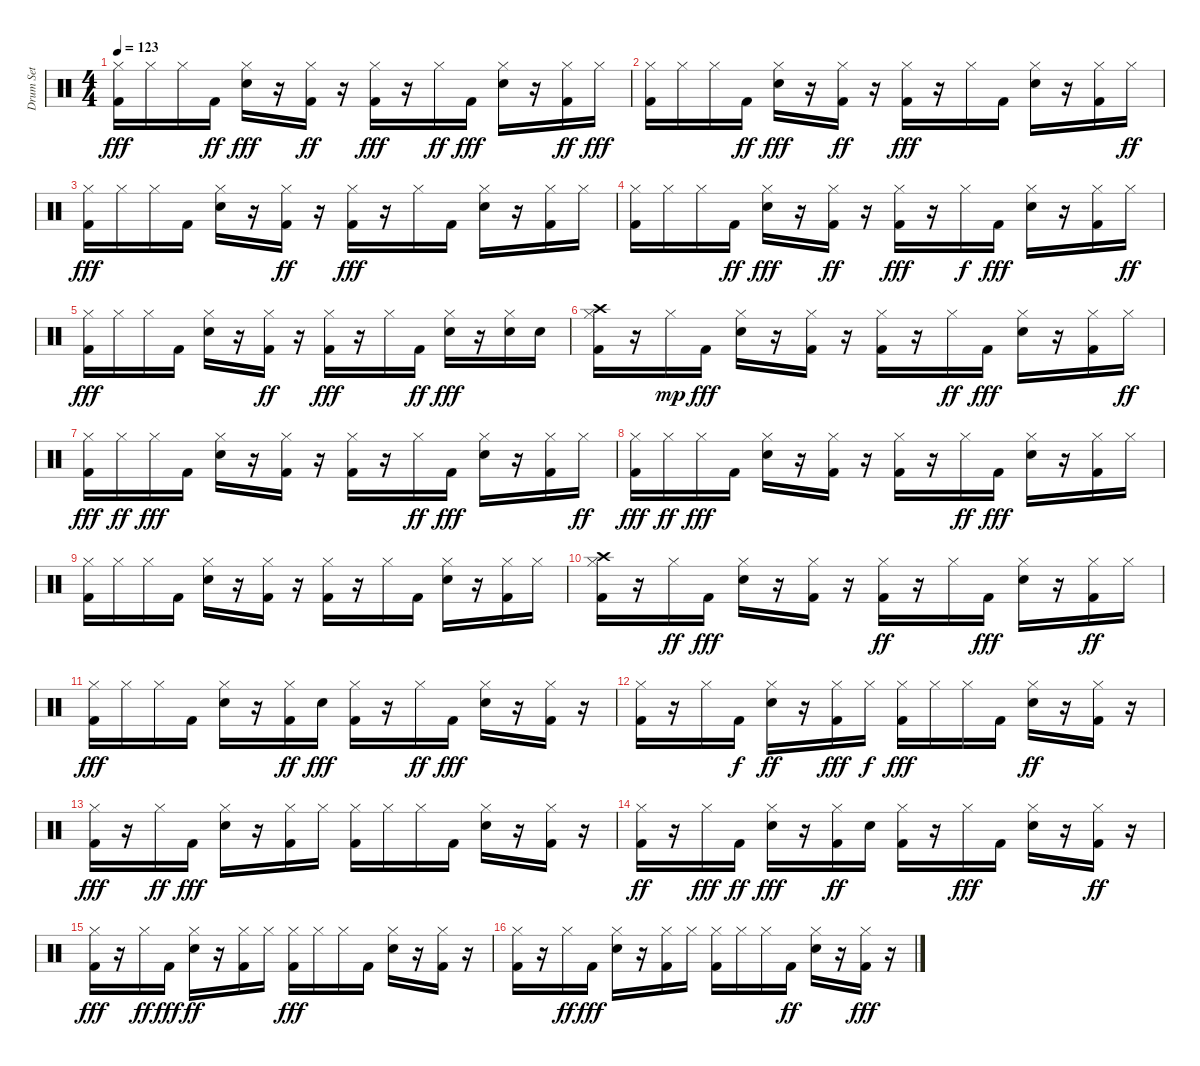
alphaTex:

\track ("Drum Set" "Drum Set") {instrument percussion}
\staff {score}
\articulation defaults
\ts (4 4)
\tempo 123
\clef neutral
\ks c
("Hi-Hat (closed)" "Kick (hit) 2").16{dy fff} "Hi-Hat (closed)".16 "Hi-Hat (closed)".16 "Kick (hit) 2".16{dy ff} ("Snare (hit) 2" "Hi-Hat (closed)").16{dy fff} r.16 ("Hi-Hat (closed)" "Kick (hit) 2").16{dy ff} r.16 ("Kick (hit) 2" "Hi-Hat (closed)").16{dy fff} r.16 "Hi-Hat (closed)".16{dy ff} "Kick (hit) 2".16{dy fff} ("Snare (hit) 2" "Hi-Hat (closed)").16 r.16 ("Hi-Hat (closed)" "Kick (hit) 2").16{dy ff} "Hi-Hat (closed)".16{dy fff} |
("Hi-Hat (closed)" "Kick (hit) 2").16 "Hi-Hat (closed)".16 "Hi-Hat (closed)".16 "Kick (hit) 2".16{dy ff} ("Hi-Hat (closed)" "Snare (hit) 2").16{dy fff} r.16 ("Kick (hit) 2" "Hi-Hat (closed)").16{dy ff} r.16 ("Kick (hit) 2" "Hi-Hat (closed)").16{dy fff} r.16 "Hi-Hat (closed)".16 "Kick (hit) 2".16 ("Snare (hit) 2" "Hi-Hat (closed)").16 r.16 ("Kick (hit) 2" "Hi-Hat (closed)").16 "Hi-Hat (closed)".16{dy ff} |
("Kick (hit) 2" "Hi-Hat (closed)").16{dy fff} "Hi-Hat (closed)".16 "Hi-Hat (closed)".16 "Kick (hit) 2".16 ("Snare (hit) 2" "Hi-Hat (closed)").16 r.16 ("Hi-Hat (closed)" "Kick (hit) 2").16{dy ff} r.16 ("Kick (hit) 2" "Hi-Hat (closed)").16{dy fff} r.16 "Hi-Hat (closed)".16 "Kick (hit) 2".16 ("Snare (hit) 2" "Hi-Hat (closed)").16 r.16 ("Hi-Hat (closed)" "Kick (hit) 2").16 "Hi-Hat (closed)".16 |
("Hi-Hat (closed)" "Kick (hit) 2").16 "Hi-Hat (closed)".16 "Hi-Hat (closed)".16 "Kick (hit) 2".16{dy ff} ("Snare (hit) 2" "Hi-Hat (closed)").16{dy fff} r.16 ("Hi-Hat (closed)" "Kick (hit) 2").16{dy ff} r.16 ("Kick (hit) 2" "Hi-Hat (closed)").16{dy fff} r.16 "Hi-Hat (closed)".16{dy f} "Kick (hit) 2".16{dy fff} ("Snare (hit) 2" "Hi-Hat (closed)").16 r.16 ("Kick (hit) 2" "Hi-Hat (closed)").16 "Hi-Hat (closed)".16{dy ff} |
("Hi-Hat (closed)" "Kick (hit) 2").16{dy fff} "Hi-Hat (closed)".16 "Hi-Hat (closed)".16 "Kick (hit) 2".16 ("Snare (hit) 2" "Hi-Hat (closed)").16 r.16 ("Hi-Hat (closed)" "Kick (hit) 2").16{dy ff} r.16 ("Hi-Hat (closed)" "Kick (hit) 2").16{dy fff} r.16 "Hi-Hat (closed)".16 "Kick (hit) 2".16{dy ff} ("Hi-Hat (closed)" "Snare (hit) 2").16{dy fff} r.16 ("Snare (hit) 2" "Hi-Hat (closed)").16 "Snare (hit) 2".16 |
("Kick (hit) 2" "Crash high (hit)" "Hi-Hat (closed)").16 r.16 "Hi-Hat (closed)".16{dy mp} "Kick (hit) 2".16{dy fff} ("Hi-Hat (closed)" "Snare (hit) 2").16 r.16 ("Hi-Hat (closed)" "Kick (hit) 2").16 r.16 ("Kick (hit) 2" "Hi-Hat (closed)").16 r.16 "Hi-Hat (closed)".16{dy ff} "Kick (hit) 2".16{dy fff} ("Hi-Hat (closed)" "Snare (hit) 2").16 r.16 ("Hi-Hat (closed)" "Kick (hit) 2").16 "Hi-Hat (closed)".16{dy ff} |
("Kick (hit) 2" "Hi-Hat (closed)").16{dy fff} "Hi-Hat (closed)".16{dy ff} "Hi-Hat (closed)".16{dy fff} "Kick (hit) 2".16 ("Snare (hit) 2" "Hi-Hat (closed)").16 r.16 ("Hi-Hat (closed)" "Kick (hit) 2").16 r.16 ("Hi-Hat (closed)" "Kick (hit) 2").16 r.16 "Hi-Hat (closed)".16{dy ff} "Kick (hit) 2".16{dy fff} ("Hi-Hat (closed)" "Snare (hit) 2").16 r.16 ("Kick (hit) 2" "Hi-Hat (closed)").16 "Hi-Hat (closed)".16{dy ff} |
("Hi-Hat (closed)" "Kick (hit) 2").16{dy fff} "Hi-Hat (closed)".16{dy ff} "Hi-Hat (closed)".16{dy fff} "Kick (hit) 2".16 ("Snare (hit) 2" "Hi-Hat (closed)").16 r.16 ("Kick (hit) 2" "Hi-Hat (closed)").16 r.16 ("Hi-Hat (closed)" "Kick (hit) 2").16 r.16 "Hi-Hat (closed)".16{dy ff} "Kick (hit) 2".16{dy fff} ("Hi-Hat (closed)" "Snare (hit) 2").16 r.16 ("Hi-Hat (closed)" "Kick (hit) 2").16 "Hi-Hat (closed)".16 |
("Hi-Hat (closed)" "Kick (hit) 2").16 "Hi-Hat (closed)".16 "Hi-Hat (closed)".16 "Kick (hit) 2".16 ("Hi-Hat (closed)" "Snare (hit) 2").16 r.16 ("Hi-Hat (closed)" "Kick (hit) 2").16 r.16 ("Hi-Hat (closed)" "Kick (hit) 2").16 r.16 "Hi-Hat (closed)".16 "Kick (hit) 2".16 ("Hi-Hat (closed)" "Snare (hit) 2").16 r.16 ("Hi-Hat (closed)" "Kick (hit) 2").16 "Hi-Hat (closed)".16 |
("Crash high (hit)" "Kick (hit) 2" "Hi-Hat (closed)").16 r.16 "Hi-Hat (closed)".16{dy ff} "Kick (hit) 2".16{dy fff} ("Snare (hit) 2" "Hi-Hat (closed)").16 r.16 ("Kick (hit) 2" "Hi-Hat (closed)").16 r.16 ("Hi-Hat (closed)" "Kick (hit) 2").16{dy ff} r.16 "Hi-Hat (closed)".16 "Kick (hit) 2".16{dy fff} ("Hi-Hat (closed)" "Snare (hit) 2").16 r.16 ("Hi-Hat (closed)" "Kick (hit) 2").16{dy ff} "Hi-Hat (closed)".16 |
("Hi-Hat (closed)" "Kick (hit) 2").16{dy fff} "Hi-Hat (closed)".16 "Hi-Hat (closed)".16 "Kick (hit) 2".16 ("Snare (hit) 2" "Hi-Hat (closed)").16 r.16 ("Hi-Hat (closed)" "Kick (hit) 2").16{dy ff} "Snare (hit) 2".16{dy fff} ("Kick (hit) 2" "Hi-Hat (closed)").16 r.16 "Hi-Hat (closed)".16{dy ff} "Kick (hit) 2".16{dy fff} ("Snare (hit) 2" "Hi-Hat (closed)").16 r.16 ("Kick (hit) 2" "Hi-Hat (closed)").16 r.16 |
("Kick (hit) 2" "Hi-Hat (closed)").16 r.16 "Hi-Hat (closed)".16 "Kick (hit) 2".16{dy f} ("Snare (hit) 2" "Hi-Hat (closed)").16{dy ff} r.16 ("Kick (hit) 2" "Hi-Hat (closed)").16{dy fff} "Hi-Hat (closed)".16{dy f} ("Hi-Hat (closed)" "Kick (hit) 2").16{dy fff} "Hi-Hat (closed)".16 "Hi-Hat (closed)".16 "Kick (hit) 2".16 ("Hi-Hat (closed)" "Snare (hit) 2").16{dy ff} r.16 ("Kick (hit) 2" "Hi-Hat (closed)").16 r.16 |
("Kick (hit) 2" "Hi-Hat (closed)").16{dy fff} r.16 "Hi-Hat (closed)".16{dy ff} "Kick (hit) 2".16{dy fff} ("Snare (hit) 2" "Hi-Hat (closed)").16 r.16 ("Kick (hit) 2" "Hi-Hat (closed)").16 "Hi-Hat (closed)".16 ("Hi-Hat (closed)" "Kick (hit) 2").16 "Hi-Hat (closed)".16 "Hi-Hat (closed)".16 "Kick (hit) 2".16 ("Snare (hit) 2" "Hi-Hat (closed)").16 r.16 ("Kick (hit) 2" "Hi-Hat (closed)").16 r.16 |
("Kick (hit) 2" "Hi-Hat (closed)").16{dy ff} r.16 "Hi-Hat (closed)".16{dy fff} "Kick (hit) 2".16{dy ff} ("Snare (hit) 2" "Hi-Hat (closed)").16{dy fff} r.16 ("Kick (hit) 2" "Hi-Hat (closed)").16{dy ff} "Snare (hit) 2".16 ("Hi-Hat (closed)" "Kick (hit) 2").16 r.16 "Hi-Hat (closed)".16{dy fff} "Kick (hit) 2".16 ("Hi-Hat (closed)" "Snare (hit) 2").16 r.16 ("Kick (hit) 2" "Hi-Hat (closed)").16{dy ff} r.16 |
("Kick (hit) 2" "Hi-Hat (closed)").16{dy fff} r.16 "Hi-Hat (closed)".16{dy ff} "Kick (hit) 2".16{dy fff} ("Snare (hit) 2" "Hi-Hat (closed)").16{dy ff} r.16 ("Hi-Hat (closed)" "Kick (hit) 2").16 "Hi-Hat (closed)".16 ("Hi-Hat (closed)" "Kick (hit) 2").16{dy fff} "Hi-Hat (closed)".16 "Hi-Hat (closed)".16 "Kick (hit) 2".16 ("Snare (hit) 2" "Hi-Hat (closed)").16 r.16 ("Kick (hit) 2" "Hi-Hat (closed)").16 r.16 |
("Kick (hit) 2" "Hi-Hat (closed)").16 r.16 "Hi-Hat (closed)".16{dy ff} "Kick (hit) 2".16{dy fff} ("Hi-Hat (closed)" "Snare (hit) 2").16 r.16 ("Kick (hit) 2" "Hi-Hat (closed)").16 "Hi-Hat (closed)".16 ("Hi-Hat (closed)" "Kick (hit) 2").16 "Hi-Hat (closed)".16 "Hi-Hat (closed)".16 "Kick (hit) 2".16{dy ff} ("Hi-Hat (closed)" "Snare (hit) 2").16 r.16 ("Kick (hit) 2" "Hi-Hat (closed)").16{dy fff} r.16
